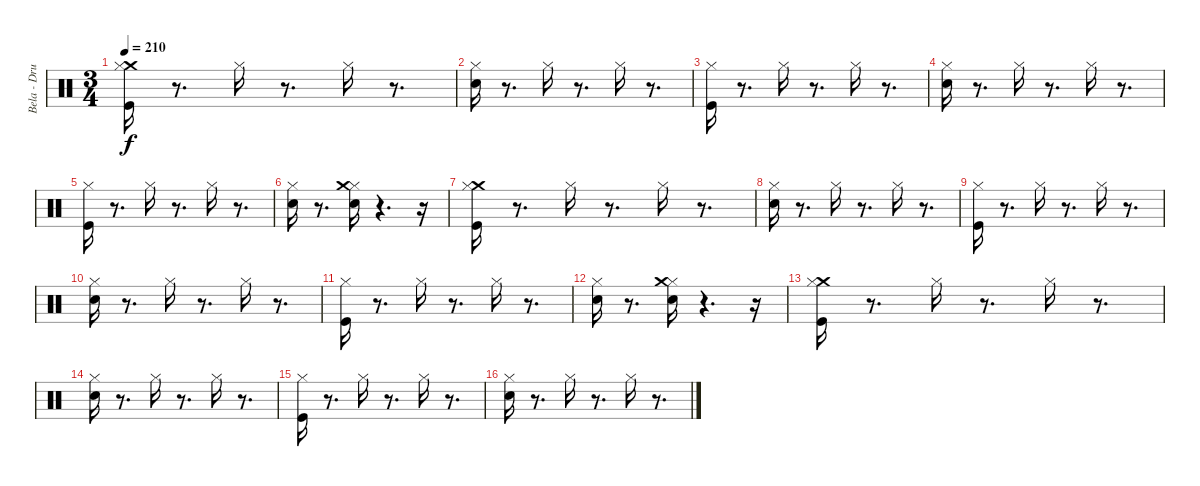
\track ("Bela - Drums" "Bela - Dru") {instrument percussion}
\staff {score}
\articulation defaults
\ts (3 4)
\tempo 210
\clef neutral
\ks c
("Kick (hit)" "Crash medium (hit)" "Hi-Hat (closed)").16{dy f} r.8{d} "Hi-Hat (closed)".16 r.8{d} "Hi-Hat (closed)".16 r.8{d} |
("Hi-Hat (closed)" "Electric Snare (hit)").16 r.8{d} "Hi-Hat (closed)".16 r.8{d} "Hi-Hat (closed)".16 r.8{d} |
("Kick (hit)" "Hi-Hat (closed)").16 r.8{d} "Hi-Hat (closed)".16 r.8{d} "Hi-Hat (closed)".16 r.8{d} |
("Hi-Hat (closed)" "Electric Snare (hit)").16 r.8{d} "Hi-Hat (closed)".16 r.8{d} "Hi-Hat (closed)".16 r.8{d} |
("Kick (hit)" "Hi-Hat (closed)").16 r.8{d} "Hi-Hat (closed)".16 r.8{d} "Hi-Hat (closed)".16 r.8{d} |
("Hi-Hat (closed)" "Electric Snare (hit)").16 r.8{d} ("Hi-Hat (closed)" "Electric Snare (hit)" "Crash medium (hit)").16 r.4{d} r.16 |
("Kick (hit)" "Crash medium (hit)" "Hi-Hat (closed)").16 r.8{d} "Hi-Hat (closed)".16 r.8{d} "Hi-Hat (closed)".16 r.8{d} |
("Hi-Hat (closed)" "Electric Snare (hit)").16 r.8{d} "Hi-Hat (closed)".16 r.8{d} "Hi-Hat (closed)".16 r.8{d} |
("Kick (hit)" "Hi-Hat (closed)").16 r.8{d} "Hi-Hat (closed)".16 r.8{d} "Hi-Hat (closed)".16 r.8{d} |
("Hi-Hat (closed)" "Electric Snare (hit)").16 r.8{d} "Hi-Hat (closed)".16 r.8{d} "Hi-Hat (closed)".16 r.8{d} |
("Kick (hit)" "Hi-Hat (closed)").16 r.8{d} "Hi-Hat (closed)".16 r.8{d} "Hi-Hat (closed)".16 r.8{d} |
("Hi-Hat (closed)" "Electric Snare (hit)").16 r.8{d} ("Hi-Hat (closed)" "Electric Snare (hit)" "Crash medium (hit)").16 r.4{d} r.16 |
("Kick (hit)" "Crash medium (hit)" "Hi-Hat (closed)").16 r.8{d} "Hi-Hat (closed)".16 r.8{d} "Hi-Hat (closed)".16 r.8{d} |
("Hi-Hat (closed)" "Electric Snare (hit)").16 r.8{d} "Hi-Hat (closed)".16 r.8{d} "Hi-Hat (closed)".16 r.8{d} |
("Kick (hit)" "Hi-Hat (closed)").16 r.8{d} "Hi-Hat (closed)".16 r.8{d} "Hi-Hat (closed)".16 r.8{d} |
("Hi-Hat (closed)" "Electric Snare (hit)").16 r.8{d} "Hi-Hat (closed)".16 r.8{d} "Hi-Hat (closed)".16 r.8{d}
